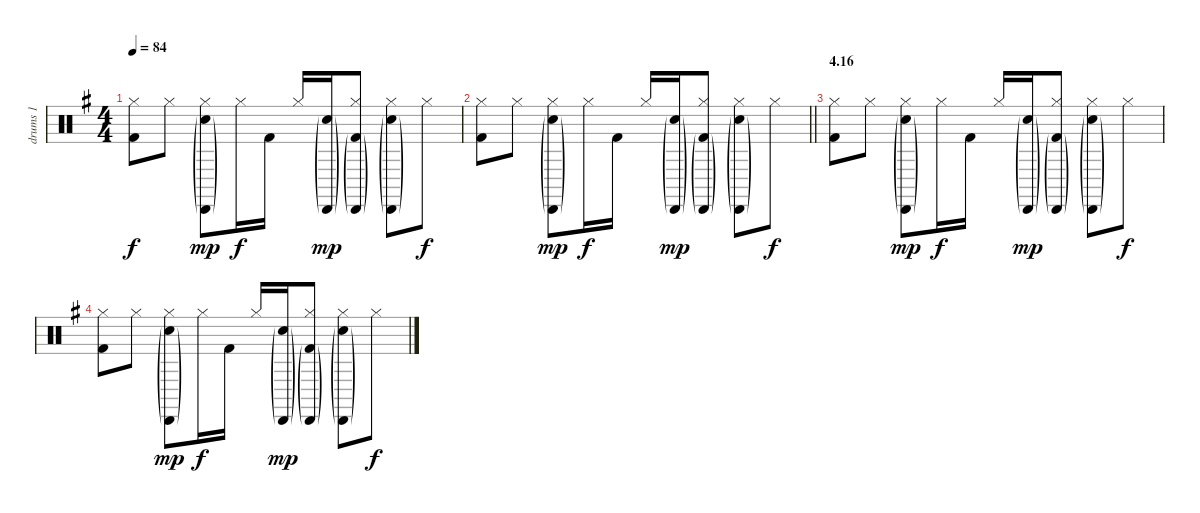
\track ("drums 1" "drums 1") {instrument percussion}
\staff {score}
\articulation defaults
\ts (4 4)
\tempo 84
\clef neutral
\ks g
("Hi-Hat (closed)" "Kick (hit) 2").8{dy f} "Hi-Hat (closed)".8 ("Cabasa (hit)"{g} "Hi-Hat (closed)" "Electric Snare (hit)"{g}).8{dy mp} "Hi-Hat (closed)".16{dy f} "Kick (hit) 2".16 "Hi-Hat (closed)".16 ("Cabasa (hit)"{g} "Electric Snare (hit)"{g}).16{dy mp} ("Cabasa (hit)"{g} "Hi-Hat (closed)" "Kick (hit) 2"{g}).8 ("Cabasa (hit)"{g} "Hi-Hat (closed)" "Electric Snare (hit)"{g}).8 "Hi-Hat (closed)".8{dy f} |
\barLineRight lightlight
("Hi-Hat (closed)" "Kick (hit) 2").8 "Hi-Hat (closed)".8 ("Cabasa (hit)"{g} "Hi-Hat (closed)" "Electric Snare (hit)"{g}).8{dy mp} "Hi-Hat (closed)".16{dy f} "Kick (hit) 2".16 "Hi-Hat (closed)".16 ("Cabasa (hit)"{g} "Electric Snare (hit)"{g}).16{dy mp} ("Cabasa (hit)"{g} "Hi-Hat (closed)" "Kick (hit) 2"{g}).8 ("Cabasa (hit)"{g} "Hi-Hat (closed)" "Electric Snare (hit)"{g}).8 "Hi-Hat (closed)".8{dy f} |
\section ("" "4.16")
("Hi-Hat (closed)" "Kick (hit) 2").8 "Hi-Hat (closed)".8 ("Cabasa (hit)"{g} "Hi-Hat (closed)" "Electric Snare (hit)"{g}).8{dy mp} "Hi-Hat (closed)".16{dy f} "Kick (hit) 2".16 "Hi-Hat (closed)".16 ("Cabasa (hit)"{g} "Electric Snare (hit)"{g}).16{dy mp} ("Cabasa (hit)"{g} "Hi-Hat (closed)" "Kick (hit) 2"{g}).8 ("Cabasa (hit)"{g} "Hi-Hat (closed)" "Electric Snare (hit)"{g}).8 "Hi-Hat (closed)".8{dy f} |
("Hi-Hat (closed)" "Kick (hit) 2").8 "Hi-Hat (closed)".8 ("Cabasa (hit)"{g} "Hi-Hat (closed)" "Electric Snare (hit)"{g}).8{dy mp} "Hi-Hat (closed)".16{dy f} "Kick (hit) 2".16 "Hi-Hat (closed)".16 ("Cabasa (hit)"{g} "Electric Snare (hit)"{g}).16{dy mp} ("Cabasa (hit)"{g} "Hi-Hat (closed)" "Kick (hit) 2"{g}).8 ("Cabasa (hit)"{g} "Hi-Hat (closed)" "Electric Snare (hit)"{g}).8 "Hi-Hat (closed)".8{dy f}
